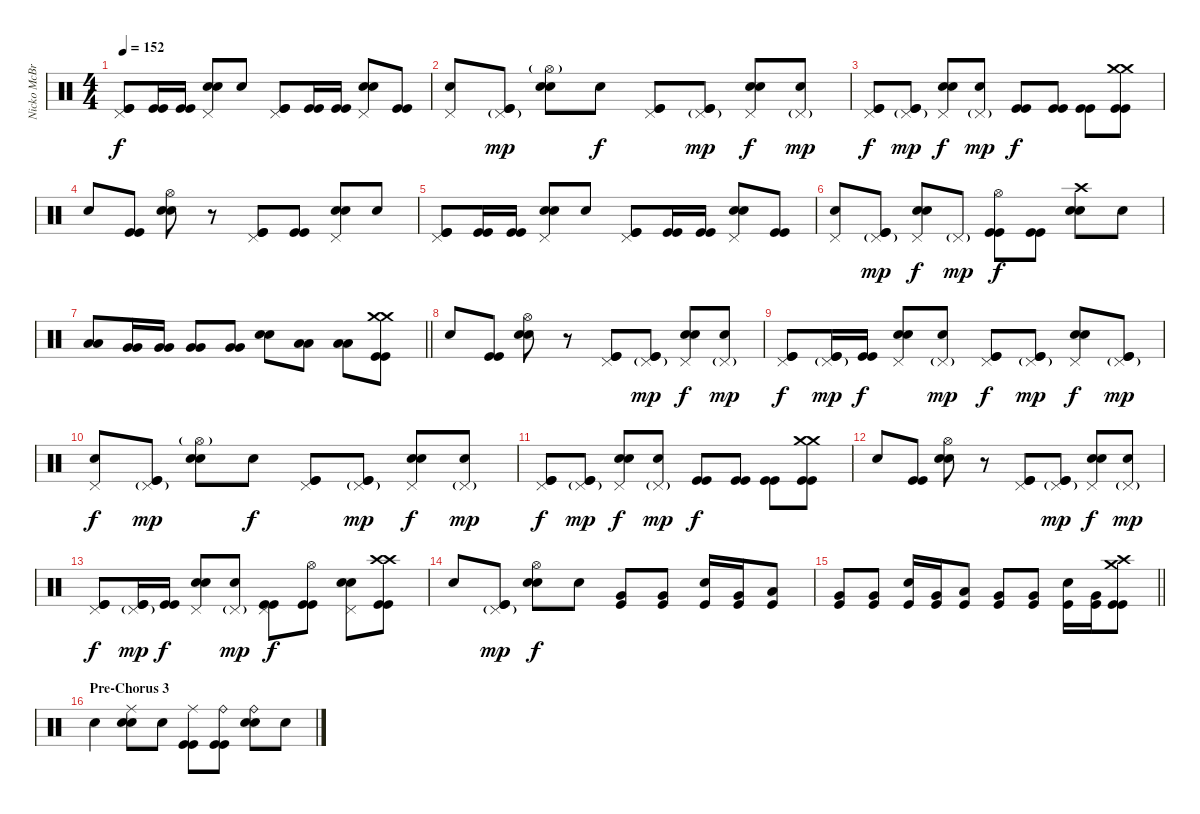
\track ("Nicko McBrain" "Nicko McBr") {instrument percussion}
\staff {score}
\articulation defaults
\ts (4 4)
\tempo 152
\clef neutral
\ks c
("Pedal Hi-Hat (hit)" "Kick (hit)" "Kick (hit)").8{dy f} ("Kick (hit)" "Kick (hit)").16 ("Kick (hit)" "Kick (hit)").16 ("Pedal Hi-Hat (hit)" "Electric Snare (hit)" "Electric Snare (hit)").8 "Snare (hit)".8 ("Pedal Hi-Hat (hit)" "Kick (hit)" "Kick (hit)").8 ("Kick (hit)" "Kick (hit)").16 ("Kick (hit)" "Kick (hit)").16 ("Pedal Hi-Hat (hit)" "Electric Snare (hit)" "Electric Snare (hit)").8 ("Kick (hit)" "Kick (hit)").8 |
("Pedal Hi-Hat (hit)" "Snare (hit)").8 ("Pedal Hi-Hat (hit)"{g} "Kick (hit)" "Kick (hit)").8{dy mp} ("Hi-Hat (open)"{g} "Electric Snare (hit)" "Electric Snare (hit)").8 "Snare (hit)".8{dy f} ("Pedal Hi-Hat (hit)" "Kick (hit)" "Kick (hit)").8 ("Pedal Hi-Hat (hit)"{g} "Kick (hit)" "Kick (hit)").8{dy mp} ("Pedal Hi-Hat (hit)" "Electric Snare (hit)" "Electric Snare (hit)").8{dy f} ("Pedal Hi-Hat (hit)"{g} "Snare (hit)").8{dy mp} |
("Pedal Hi-Hat (hit)" "Kick (hit)" "Kick (hit)").8{dy f} ("Pedal Hi-Hat (hit)"{g} "Kick (hit)" "Kick (hit)").8{dy mp} ("Pedal Hi-Hat (hit)" "Electric Snare (hit)" "Electric Snare (hit)").8{dy f} ("Pedal Hi-Hat (hit)"{g} "Snare (hit)").8{dy mp} ("Kick (hit)" "Kick (hit)").8{dy f} ("Kick (hit)" "Kick (hit)").8 ("Kick (hit)" "Kick (hit)").8 ("Crash medium (hit)" "Crash medium (hit)" "Kick (hit)" "Kick (hit)").8 |
"Snare (hit)".8 ("Kick (hit)" "Kick (hit)").8 ("Hi-Hat (open)" "Electric Snare (hit)" "Electric Snare (hit)").8 r.8 ("Pedal Hi-Hat (hit)" "Kick (hit)" "Kick (hit)").8 ("Kick (hit)" "Kick (hit)").8 ("Pedal Hi-Hat (hit)" "Electric Snare (hit)" "Electric Snare (hit)").8 "Snare (hit)".8 |
("Pedal Hi-Hat (hit)" "Kick (hit)" "Kick (hit)").8 ("Kick (hit)" "Kick (hit)").16 ("Kick (hit)" "Kick (hit)").16 ("Pedal Hi-Hat (hit)" "Electric Snare (hit)" "Electric Snare (hit)").8 "Snare (hit)".8 ("Pedal Hi-Hat (hit)" "Kick (hit)" "Kick (hit)").8 ("Kick (hit)" "Kick (hit)").16 ("Kick (hit)" "Kick (hit)").16 ("Pedal Hi-Hat (hit)" "Electric Snare (hit)" "Electric Snare (hit)").8 ("Kick (hit)" "Kick (hit)").8 |
("Pedal Hi-Hat (hit)" "Snare (hit)").8 ("Pedal Hi-Hat (hit)"{g} "Kick (hit)" "Kick (hit)").8{dy mp} ("Pedal Hi-Hat (hit)" "Electric Snare (hit)" "Electric Snare (hit)").8{dy f} "Pedal Hi-Hat (hit)"{g}.8{dy mp} ("Hi-Hat (open)" "Kick (hit)" "Kick (hit)").8{dy f} ("Kick (hit)" "Kick (hit)").8 ("Crash high (hit)" "Electric Snare (hit)" "Electric Snare (hit)").8 "Snare (hit)".8 |
\barLineRight lightlight
("Low Tom (hit)" "Low Tom (hit)").8 ("Very Low Tom (hit)" "Very Low Tom (hit)").16 ("Very Low Tom (hit)" "Very Low Tom (hit)").16 ("Very Low Tom (hit)" "Very Low Tom (hit)").8 ("Very Low Tom (hit)" "Very Low Tom (hit)").8 ("Electric Snare (hit)" "Electric Snare (hit)").8 ("Low Floor Tom (hit)" "Low Floor Tom (hit)").8 ("Low Floor Tom (hit)" "Low Floor Tom (hit)").8 ("Crash medium (hit)" "Crash medium (hit)" "Kick (hit)" "Kick (hit)").8 |
"Snare (hit)".8 ("Kick (hit)" "Kick (hit)").8 ("Hi-Hat (open)" "Electric Snare (hit)" "Electric Snare (hit)").8 r.8 ("Pedal Hi-Hat (hit)" "Kick (hit)" "Kick (hit)").8 ("Pedal Hi-Hat (hit)"{g} "Kick (hit)" "Kick (hit)").8{dy mp} ("Pedal Hi-Hat (hit)" "Electric Snare (hit)" "Electric Snare (hit)").8{dy f} ("Pedal Hi-Hat (hit)"{g} "Snare (hit)").8{dy mp} |
("Pedal Hi-Hat (hit)" "Kick (hit)" "Kick (hit)").8{dy f} ("Pedal Hi-Hat (hit)"{g} "Kick (hit)" "Kick (hit)").16{dy mp} ("Kick (hit)" "Kick (hit)").16{dy f} ("Pedal Hi-Hat (hit)" "Electric Snare (hit)" "Electric Snare (hit)").8 ("Pedal Hi-Hat (hit)"{g} "Snare (hit)").8{dy mp} ("Pedal Hi-Hat (hit)" "Kick (hit)" "Kick (hit)").8{dy f} ("Pedal Hi-Hat (hit)"{g} "Kick (hit)" "Kick (hit)").8{dy mp} ("Pedal Hi-Hat (hit)" "Electric Snare (hit)" "Electric Snare (hit)").8{dy f} ("Pedal Hi-Hat (hit)"{g} "Kick (hit)" "Kick (hit)").8{dy mp} |
("Pedal Hi-Hat (hit)" "Snare (hit)").8{dy f} ("Pedal Hi-Hat (hit)"{g} "Kick (hit)" "Kick (hit)").8{dy mp} ("Hi-Hat (open)"{g} "Electric Snare (hit)" "Electric Snare (hit)").8 "Snare (hit)".8{dy f} ("Pedal Hi-Hat (hit)" "Kick (hit)" "Kick (hit)").8 ("Pedal Hi-Hat (hit)"{g} "Kick (hit)" "Kick (hit)").8{dy mp} ("Pedal Hi-Hat (hit)" "Electric Snare (hit)" "Electric Snare (hit)").8{dy f} ("Pedal Hi-Hat (hit)"{g} "Snare (hit)").8{dy mp} |
("Pedal Hi-Hat (hit)" "Kick (hit)" "Kick (hit)").8{dy f} ("Pedal Hi-Hat (hit)"{g} "Kick (hit)" "Kick (hit)").8{dy mp} ("Pedal Hi-Hat (hit)" "Electric Snare (hit)" "Electric Snare (hit)").8{dy f} ("Pedal Hi-Hat (hit)"{g} "Snare (hit)").8{dy mp} ("Kick (hit)" "Kick (hit)").8{dy f} ("Kick (hit)" "Kick (hit)").8 ("Kick (hit)" "Kick (hit)").8 ("Crash medium (hit)" "Crash medium (hit)" "Kick (hit)" "Kick (hit)").8 |
"Snare (hit)".8 ("Kick (hit)" "Kick (hit)").8 ("Hi-Hat (open)" "Electric Snare (hit)" "Electric Snare (hit)").8 r.8 ("Pedal Hi-Hat (hit)" "Kick (hit)" "Kick (hit)").8 ("Pedal Hi-Hat (hit)"{g} "Kick (hit)" "Kick (hit)").8{dy mp} ("Pedal Hi-Hat (hit)" "Electric Snare (hit)" "Electric Snare (hit)").8{dy f} ("Pedal Hi-Hat (hit)"{g} "Snare (hit)").8{dy mp} |
("Pedal Hi-Hat (hit)" "Kick (hit)" "Kick (hit)").8{dy f} ("Pedal Hi-Hat (hit)"{g} "Kick (hit)" "Kick (hit)").16{dy mp} ("Kick (hit)" "Kick (hit)").16{dy f} ("Pedal Hi-Hat (hit)" "Electric Snare (hit)" "Electric Snare (hit)").8 ("Pedal Hi-Hat (hit)"{g} "Snare (hit)").8{dy mp} ("Pedal Hi-Hat (hit)" "Kick (hit)" "Kick (hit)").8{dy f} ("Hi-Hat (open)" "Kick (hit)" "Kick (hit)").8 ("Pedal Hi-Hat (hit)" "Electric Snare (hit)" "Electric Snare (hit)").8 ("Crash high (hit)" "Crash high (hit)" "Kick (hit)" "Kick (hit)").8 |
"Snare (hit)".8 ("Pedal Hi-Hat (hit)"{g} "Kick (hit)" "Kick (hit)").8{dy mp} ("Hi-Hat (open)" "Electric Snare (hit)" "Electric Snare (hit)").8{dy f} "Snare (hit)".8 ("Very Low Tom (hit)" "Kick (hit)").8 ("Very Low Tom (hit)" "Kick (hit)").8 ("Electric Snare (hit)" "Kick (hit)").16 ("Very Low Tom (hit)" "Kick (hit)").16 ("Low Floor Tom (hit)" "Kick (hit)").8 |
\barLineRight lightlight
("Very Low Tom (hit)" "Kick (hit)").8 ("Very Low Tom (hit)" "Kick (hit)").8 ("Electric Snare (hit)" "Kick (hit)").16 ("Very Low Tom (hit)" "Kick (hit)").16 ("Low Floor Tom (hit)" "Kick (hit)").8 ("Very Low Tom (hit)" "Kick (hit)").8 ("Very Low Tom (hit)" "Kick (hit)").8 ("Electric Snare (hit)" "Kick (hit)").16 ("Very Low Tom (hit)" "Kick (hit)").16 ("Crash high (hit)" "Crash medium (hit)" "Kick (hit)" "Kick (hit)").8 |
\section ("" "Pre-Chorus 3")
"Snare (hit)".4 ("Ride (middle)" "Electric Snare (hit)" "Electric Snare (hit)").8 "Snare (hit)".8 ("Ride (middle)" "Kick (hit)" "Kick (hit)").8 ("Ride (bell)" "Kick (hit)" "Kick (hit)").8 ("Ride (bell)" "Electric Snare (hit)" "Electric Snare (hit)").8 "Snare (hit)".8
